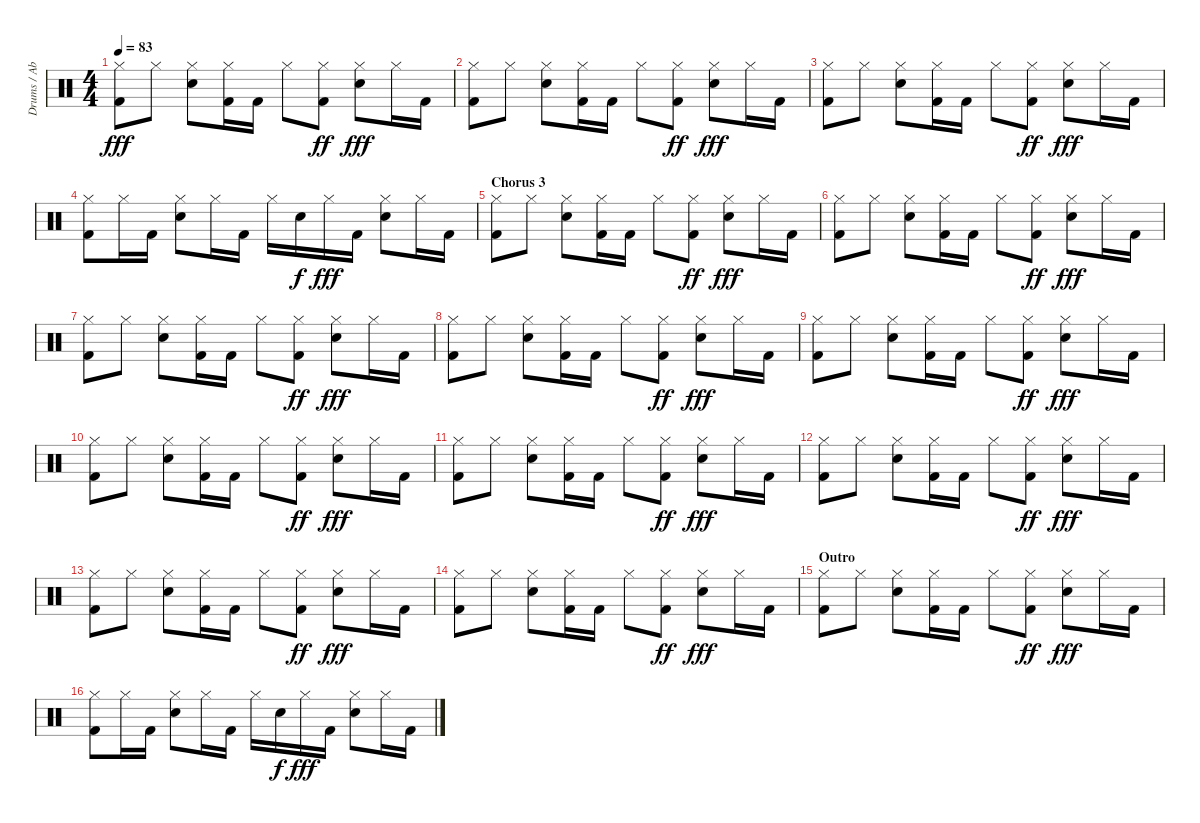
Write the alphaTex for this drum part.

\track ("Drums / Abe Cunningham" "Drums / Ab") {instrument percussion}
\staff {score}
\articulation defaults
\ts (4 4)
\tempo 83
\clef neutral
\ks c
("Hi-Hat (closed)" "Kick (hit) 2").8{dy fff} "Hi-Hat (closed)".8 ("Hi-Hat (closed)" "Electric Snare (hit)").8 ("Hi-Hat (closed)" "Kick (hit) 2").16 "Kick (hit) 2".16 "Hi-Hat (closed)".8 ("Hi-Hat (closed)" "Kick (hit) 2").8{dy ff} ("Hi-Hat (closed)" "Electric Snare (hit)").8{dy fff} "Hi-Hat (closed)".16 "Kick (hit) 2".16 |
("Hi-Hat (closed)" "Kick (hit) 2").8 "Hi-Hat (closed)".8 ("Hi-Hat (closed)" "Electric Snare (hit)").8 ("Hi-Hat (closed)" "Kick (hit) 2").16 "Kick (hit) 2".16 "Hi-Hat (closed)".8 ("Hi-Hat (closed)" "Kick (hit) 2").8{dy ff} ("Hi-Hat (closed)" "Electric Snare (hit)").8{dy fff} "Hi-Hat (closed)".16 "Kick (hit) 2".16 |
("Hi-Hat (closed)" "Kick (hit) 2").8 "Hi-Hat (closed)".8 ("Hi-Hat (closed)" "Electric Snare (hit)").8 ("Hi-Hat (closed)" "Kick (hit) 2").16 "Kick (hit) 2".16 "Hi-Hat (closed)".8 ("Hi-Hat (closed)" "Kick (hit) 2").8{dy ff} ("Hi-Hat (closed)" "Electric Snare (hit)").8{dy fff} "Hi-Hat (closed)".16 "Kick (hit) 2".16 |
("Hi-Hat (closed)" "Kick (hit) 2").8 "Hi-Hat (closed)".16 "Kick (hit) 2".16 ("Hi-Hat (closed)" "Electric Snare (hit)").8 "Hi-Hat (closed)".16 "Kick (hit) 2".16 "Hi-Hat (closed)".16 "Electric Snare (hit)".16{dy f} "Hi-Hat (closed)".16{dy fff} "Kick (hit) 2".16 ("Hi-Hat (closed)" "Electric Snare (hit)").8 "Hi-Hat (closed)".16 "Kick (hit) 2".16 |
\section ("" "Chorus 3")
("Hi-Hat (closed)" "Kick (hit) 2").8 "Hi-Hat (closed)".8 ("Hi-Hat (closed)" "Electric Snare (hit)").8 ("Hi-Hat (closed)" "Kick (hit) 2").16 "Kick (hit) 2".16 "Hi-Hat (closed)".8 ("Hi-Hat (closed)" "Kick (hit) 2").8{dy ff} ("Hi-Hat (closed)" "Electric Snare (hit)").8{dy fff} "Hi-Hat (closed)".16 "Kick (hit) 2".16 |
("Hi-Hat (closed)" "Kick (hit) 2").8 "Hi-Hat (closed)".8 ("Hi-Hat (closed)" "Electric Snare (hit)").8 ("Hi-Hat (closed)" "Kick (hit) 2").16 "Kick (hit) 2".16 "Hi-Hat (closed)".8 ("Hi-Hat (closed)" "Kick (hit) 2").8{dy ff} ("Hi-Hat (closed)" "Electric Snare (hit)").8{dy fff} "Hi-Hat (closed)".16 "Kick (hit) 2".16 |
("Hi-Hat (closed)" "Kick (hit) 2").8 "Hi-Hat (closed)".8 ("Hi-Hat (closed)" "Electric Snare (hit)").8 ("Hi-Hat (closed)" "Kick (hit) 2").16 "Kick (hit) 2".16 "Hi-Hat (closed)".8 ("Hi-Hat (closed)" "Kick (hit) 2").8{dy ff} ("Hi-Hat (closed)" "Electric Snare (hit)").8{dy fff} "Hi-Hat (closed)".16 "Kick (hit) 2".16 |
("Hi-Hat (closed)" "Kick (hit) 2").8 "Hi-Hat (closed)".8 ("Hi-Hat (closed)" "Electric Snare (hit)").8 ("Hi-Hat (closed)" "Kick (hit) 2").16 "Kick (hit) 2".16 "Hi-Hat (closed)".8 ("Hi-Hat (closed)" "Kick (hit) 2").8{dy ff} ("Hi-Hat (closed)" "Electric Snare (hit)").8{dy fff} "Hi-Hat (closed)".16 "Kick (hit) 2".16 |
("Hi-Hat (closed)" "Kick (hit) 2").8 "Hi-Hat (closed)".8 ("Hi-Hat (closed)" "Electric Snare (hit)").8 ("Hi-Hat (closed)" "Kick (hit) 2").16 "Kick (hit) 2".16 "Hi-Hat (closed)".8 ("Hi-Hat (closed)" "Kick (hit) 2").8{dy ff} ("Hi-Hat (closed)" "Electric Snare (hit)").8{dy fff} "Hi-Hat (closed)".16 "Kick (hit) 2".16 |
("Hi-Hat (closed)" "Kick (hit) 2").8 "Hi-Hat (closed)".8 ("Hi-Hat (closed)" "Electric Snare (hit)").8 ("Hi-Hat (closed)" "Kick (hit) 2").16 "Kick (hit) 2".16 "Hi-Hat (closed)".8 ("Hi-Hat (closed)" "Kick (hit) 2").8{dy ff} ("Hi-Hat (closed)" "Electric Snare (hit)").8{dy fff} "Hi-Hat (closed)".16 "Kick (hit) 2".16 |
("Hi-Hat (closed)" "Kick (hit) 2").8 "Hi-Hat (closed)".8 ("Hi-Hat (closed)" "Electric Snare (hit)").8 ("Hi-Hat (closed)" "Kick (hit) 2").16 "Kick (hit) 2".16 "Hi-Hat (closed)".8 ("Hi-Hat (closed)" "Kick (hit) 2").8{dy ff} ("Hi-Hat (closed)" "Electric Snare (hit)").8{dy fff} "Hi-Hat (closed)".16 "Kick (hit) 2".16 |
("Hi-Hat (closed)" "Kick (hit) 2").8 "Hi-Hat (closed)".8 ("Hi-Hat (closed)" "Electric Snare (hit)").8 ("Hi-Hat (closed)" "Kick (hit) 2").16 "Kick (hit) 2".16 "Hi-Hat (closed)".8 ("Hi-Hat (closed)" "Kick (hit) 2").8{dy ff} ("Hi-Hat (closed)" "Electric Snare (hit)").8{dy fff} "Hi-Hat (closed)".16 "Kick (hit) 2".16 |
("Hi-Hat (closed)" "Kick (hit) 2").8 "Hi-Hat (closed)".8 ("Hi-Hat (closed)" "Electric Snare (hit)").8 ("Hi-Hat (closed)" "Kick (hit) 2").16 "Kick (hit) 2".16 "Hi-Hat (closed)".8 ("Hi-Hat (closed)" "Kick (hit) 2").8{dy ff} ("Hi-Hat (closed)" "Electric Snare (hit)").8{dy fff} "Hi-Hat (closed)".16 "Kick (hit) 2".16 |
("Hi-Hat (closed)" "Kick (hit) 2").8 "Hi-Hat (closed)".8 ("Hi-Hat (closed)" "Electric Snare (hit)").8 ("Hi-Hat (closed)" "Kick (hit) 2").16 "Kick (hit) 2".16 "Hi-Hat (closed)".8 ("Hi-Hat (closed)" "Kick (hit) 2").8{dy ff} ("Hi-Hat (closed)" "Electric Snare (hit)").8{dy fff} "Hi-Hat (closed)".16 "Kick (hit) 2".16 |
\section ("" "Outro")
("Hi-Hat (closed)" "Kick (hit) 2").8 "Hi-Hat (closed)".8 ("Hi-Hat (closed)" "Electric Snare (hit)").8 ("Hi-Hat (closed)" "Kick (hit) 2").16 "Kick (hit) 2".16 "Hi-Hat (closed)".8 ("Hi-Hat (closed)" "Kick (hit) 2").8{dy ff} ("Hi-Hat (closed)" "Electric Snare (hit)").8{dy fff} "Hi-Hat (closed)".16 "Kick (hit) 2".16 |
("Hi-Hat (closed)" "Kick (hit) 2").8 "Hi-Hat (closed)".16 "Kick (hit) 2".16 ("Hi-Hat (closed)" "Electric Snare (hit)").8 "Hi-Hat (closed)".16 "Kick (hit) 2".16 "Hi-Hat (closed)".16 "Electric Snare (hit)".16{dy f} "Hi-Hat (closed)".16{dy fff} "Kick (hit) 2".16 ("Hi-Hat (closed)" "Electric Snare (hit)").8 "Hi-Hat (closed)".16 "Kick (hit) 2".16
